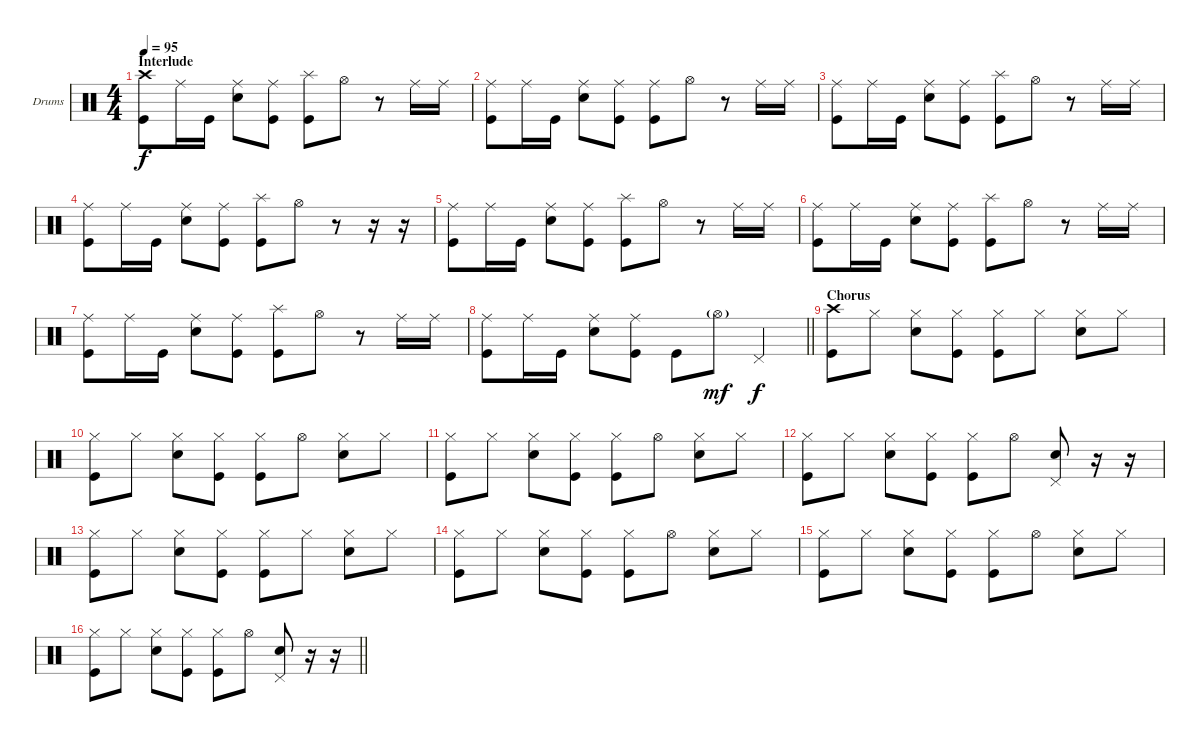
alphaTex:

\bracketExtendMode groupsimilarinstruments
\firstSystemTrackNameOrientation horizontal
\otherSystemsTrackNameOrientation horizontal
\track ("Drumkit" "Drums") {instrument percussion}
\staff {score}
\articulation defaults
\ts (4 4)
\section ("" "Interlude")
\tempo 95
\clef neutral
\ks c
("Crash high (hit)" "Kick (hit)").8{dy f} "Ride (middle)".16 "Kick (hit)".16 ("Ride (middle)" "Snare (hit) 2").8 ("Ride (middle)" "Kick (hit)").8 ("Splash (hit)" "Kick (hit)").8 "Hi-Hat (open)".8 r.8 "Ride (middle)".16 "Ride (middle)".16 |
("Ride (middle)" "Kick (hit)").8 "Ride (middle)".16 "Kick (hit)".16 ("Ride (middle)" "Snare (hit) 2").8 ("Ride (middle)" "Kick (hit)").8 ("Ride (middle)" "Kick (hit)").8 "Hi-Hat (open)".8 r.8 "Ride (middle)".16 "Ride (middle)".16 |
("Ride (middle)" "Kick (hit)").8 "Ride (middle)".16 "Kick (hit)".16 ("Ride (middle)" "Snare (hit) 2").8 ("Ride (middle)" "Kick (hit)").8 ("Splash (hit)" "Kick (hit)").8 "Hi-Hat (open)".8 r.8 "Ride (middle)".16 "Ride (middle)".16 |
("Ride (middle)" "Kick (hit)").8 "Ride (middle)".16 "Kick (hit)".16 ("Ride (middle)" "Snare (hit) 2").8 ("Ride (middle)" "Kick (hit)").8 ("Splash (hit)" "Kick (hit)").8 "Hi-Hat (open)".8 r.8 r.16 r.16 |
("Ride (middle)" "Kick (hit)").8 "Ride (middle)".16 "Kick (hit)".16 ("Ride (middle)" "Snare (hit) 2").8 ("Ride (middle)" "Kick (hit)").8 ("Splash (hit)" "Kick (hit)").8 "Hi-Hat (open)".8 r.8 "Ride (middle)".16 "Ride (middle)".16 |
("Ride (middle)" "Kick (hit)").8 "Ride (middle)".16 "Kick (hit)".16 ("Ride (middle)" "Snare (hit) 2").8 ("Ride (middle)" "Kick (hit)").8 ("Splash (hit)" "Kick (hit)").8 "Hi-Hat (open)".8 r.8 "Ride (middle)".16 "Ride (middle)".16 |
("Ride (middle)" "Kick (hit)").8 "Ride (middle)".16 "Kick (hit)".16 ("Ride (middle)" "Snare (hit) 2").8 ("Ride (middle)" "Kick (hit)").8 ("Splash (hit)" "Kick (hit)").8 "Hi-Hat (open)".8 r.8 "Ride (middle)".16 "Ride (middle)".16 |
\barLineRight lightlight
("Ride (middle)" "Kick (hit)").8 "Ride (middle)".16 "Kick (hit)".16 ("Ride (middle)" "Snare (hit) 2").8 ("Ride (middle)" "Kick (hit)").8 "Kick (hit)".8 "Hi-Hat (open)"{g}.8{dy mf} "Pedal Hi-Hat (hit)".4{dy f} |
\section ("" "Chorus")
("Crash high (hit)" "Kick (hit)").8 "Hi-Hat (closed)".8 ("Hi-Hat (closed)" "Snare (hit) 2").8 ("Hi-Hat (closed)" "Kick (hit)").8 ("Hi-Hat (closed)" "Kick (hit)").8 "Hi-Hat (closed)".8 ("Hi-Hat (closed)" "Snare (hit) 2").8 "Hi-Hat (closed)".8 |
("Hi-Hat (closed)" "Kick (hit)").8 "Hi-Hat (closed)".8 ("Hi-Hat (closed)" "Snare (hit) 2").8 ("Hi-Hat (closed)" "Kick (hit)").8 ("Hi-Hat (closed)" "Kick (hit)").8 "Hi-Hat (open)".8 ("Hi-Hat (closed)" "Snare (hit) 2").8 "Hi-Hat (closed)".8 |
("Hi-Hat (closed)" "Kick (hit)").8 "Hi-Hat (closed)".8 ("Hi-Hat (closed)" "Snare (hit) 2").8 ("Hi-Hat (closed)" "Kick (hit)").8 ("Hi-Hat (closed)" "Kick (hit)").8 "Hi-Hat (open)".8 ("Hi-Hat (closed)" "Snare (hit) 2").8 "Hi-Hat (closed)".8 |
("Hi-Hat (closed)" "Kick (hit)").8 "Hi-Hat (closed)".8 ("Hi-Hat (closed)" "Snare (hit) 2").8 ("Hi-Hat (closed)" "Kick (hit)").8 ("Hi-Hat (closed)" "Kick (hit)").8 "Hi-Hat (open)".8 ("Pedal Hi-Hat (hit)" "Snare (hit) 2").8 r.16 r.16 |
("Hi-Hat (closed)" "Kick (hit)").8 "Hi-Hat (closed)".8 ("Hi-Hat (closed)" "Snare (hit) 2").8 ("Hi-Hat (closed)" "Kick (hit)").8 ("Hi-Hat (closed)" "Kick (hit)").8 "Hi-Hat (closed)".8 ("Hi-Hat (closed)" "Snare (hit) 2").8 "Hi-Hat (closed)".8 |
("Hi-Hat (closed)" "Kick (hit)").8 "Hi-Hat (closed)".8 ("Hi-Hat (closed)" "Snare (hit) 2").8 ("Hi-Hat (closed)" "Kick (hit)").8 ("Hi-Hat (closed)" "Kick (hit)").8 "Hi-Hat (open)".8 ("Hi-Hat (closed)" "Snare (hit) 2").8 "Hi-Hat (closed)".8 |
("Hi-Hat (closed)" "Kick (hit)").8 "Hi-Hat (closed)".8 ("Hi-Hat (closed)" "Snare (hit) 2").8 ("Hi-Hat (closed)" "Kick (hit)").8 ("Hi-Hat (closed)" "Kick (hit)").8 "Hi-Hat (open)".8 ("Hi-Hat (closed)" "Snare (hit) 2").8 "Hi-Hat (closed)".8 |
\barLineRight lightlight
("Hi-Hat (closed)" "Kick (hit)").8 "Hi-Hat (closed)".8 ("Hi-Hat (closed)" "Snare (hit) 2").8 ("Hi-Hat (closed)" "Kick (hit)").8 ("Hi-Hat (closed)" "Kick (hit)").8 "Hi-Hat (open)".8 ("Pedal Hi-Hat (hit)" "Snare (hit) 2").8 r.16 r.16
